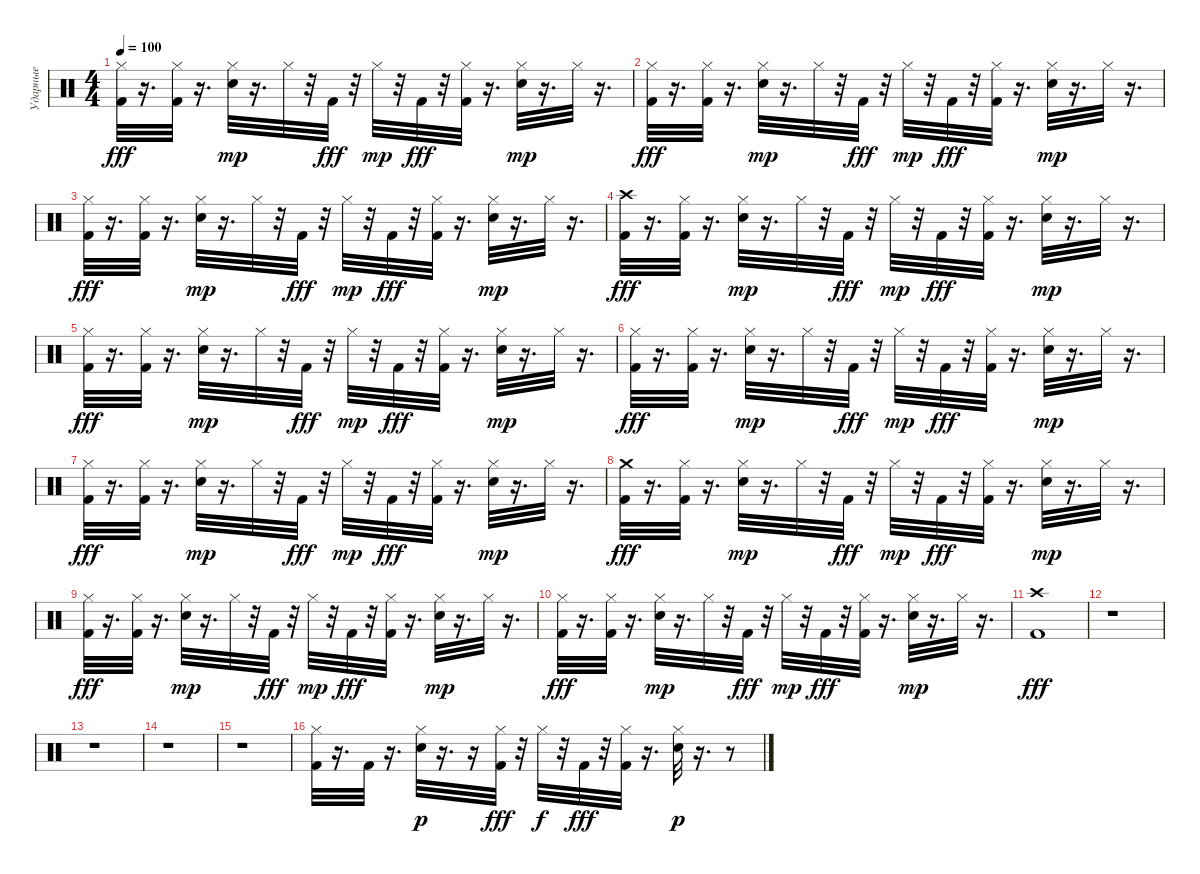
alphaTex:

\track ("Ударные" "Ударные") {instrument percussion}
\staff {score}
\articulation defaults
\ts (4 4)
\tempo 100
\clef neutral
\ks c
("Hi-Hat (closed)" "Kick (hit) 2").32{dy fff} r.16{d} ("Hi-Hat (closed)" "Kick (hit) 2").32 r.16{d} ("Hi-Hat (closed)" "Electric Snare (hit)").32{dy mp} r.16{d} "Hi-Hat (closed)".32 r.32 "Kick (hit) 2".32{dy fff} r.32 "Hi-Hat (closed)".32{dy mp} r.32 "Kick (hit) 2".32{dy fff} r.32 ("Hi-Hat (closed)" "Kick (hit) 2").32 r.16{d} ("Hi-Hat (closed)" "Electric Snare (hit)").32{dy mp} r.16{d} "Hi-Hat (closed)".32 r.16{d} |
("Hi-Hat (closed)" "Kick (hit) 2").32{dy fff} r.16{d} ("Hi-Hat (closed)" "Kick (hit) 2").32 r.16{d} ("Hi-Hat (closed)" "Electric Snare (hit)").32{dy mp} r.16{d} "Hi-Hat (closed)".32 r.32 "Kick (hit) 2".32{dy fff} r.32 "Hi-Hat (closed)".32{dy mp} r.32 "Kick (hit) 2".32{dy fff} r.32 ("Hi-Hat (closed)" "Kick (hit) 2").32 r.16{d} ("Hi-Hat (closed)" "Electric Snare (hit)").32{dy mp} r.16{d} "Hi-Hat (closed)".32 r.16{d} |
("Hi-Hat (closed)" "Kick (hit) 2").32{dy fff} r.16{d} ("Hi-Hat (closed)" "Kick (hit) 2").32 r.16{d} ("Hi-Hat (closed)" "Electric Snare (hit)").32{dy mp} r.16{d} "Hi-Hat (closed)".32 r.32 "Kick (hit) 2".32{dy fff} r.32 "Hi-Hat (closed)".32{dy mp} r.32 "Kick (hit) 2".32{dy fff} r.32 ("Hi-Hat (closed)" "Kick (hit) 2").32 r.16{d} ("Hi-Hat (closed)" "Electric Snare (hit)").32{dy mp} r.16{d} "Hi-Hat (closed)".32 r.16{d} |
("Crash high (hit)" "Kick (hit) 2").32{dy fff} r.16{d} ("Hi-Hat (closed)" "Kick (hit) 2").32 r.16{d} ("Hi-Hat (closed)" "Electric Snare (hit)").32{dy mp} r.16{d} "Hi-Hat (closed)".32 r.32 "Kick (hit) 2".32{dy fff} r.32 "Hi-Hat (closed)".32{dy mp} r.32 "Kick (hit) 2".32{dy fff} r.32 ("Hi-Hat (closed)" "Kick (hit) 2").32 r.16{d} ("Hi-Hat (closed)" "Electric Snare (hit)").32{dy mp} r.16{d} "Hi-Hat (closed)".32 r.16{d} |
("Hi-Hat (closed)" "Kick (hit) 2").32{dy fff} r.16{d} ("Hi-Hat (closed)" "Kick (hit) 2").32 r.16{d} ("Hi-Hat (closed)" "Electric Snare (hit)").32{dy mp} r.16{d} "Hi-Hat (closed)".32 r.32 "Kick (hit) 2".32{dy fff} r.32 "Hi-Hat (closed)".32{dy mp} r.32 "Kick (hit) 2".32{dy fff} r.32 ("Hi-Hat (closed)" "Kick (hit) 2").32 r.16{d} ("Hi-Hat (closed)" "Electric Snare (hit)").32{dy mp} r.16{d} "Hi-Hat (closed)".32 r.16{d} |
("Hi-Hat (closed)" "Kick (hit) 2").32{dy fff} r.16{d} ("Hi-Hat (closed)" "Kick (hit) 2").32 r.16{d} ("Hi-Hat (closed)" "Electric Snare (hit)").32{dy mp} r.16{d} "Hi-Hat (closed)".32 r.32 "Kick (hit) 2".32{dy fff} r.32 "Hi-Hat (closed)".32{dy mp} r.32 "Kick (hit) 2".32{dy fff} r.32 ("Hi-Hat (closed)" "Kick (hit) 2").32 r.16{d} ("Hi-Hat (closed)" "Electric Snare (hit)").32{dy mp} r.16{d} "Hi-Hat (closed)".32 r.16{d} |
("Hi-Hat (closed)" "Kick (hit) 2").32{dy fff} r.16{d} ("Hi-Hat (closed)" "Kick (hit) 2").32 r.16{d} ("Hi-Hat (closed)" "Electric Snare (hit)").32{dy mp} r.16{d} "Hi-Hat (closed)".32 r.32 "Kick (hit) 2".32{dy fff} r.32 "Hi-Hat (closed)".32{dy mp} r.32 "Kick (hit) 2".32{dy fff} r.32 ("Hi-Hat (closed)" "Kick (hit) 2").32 r.16{d} ("Hi-Hat (closed)" "Electric Snare (hit)").32{dy mp} r.16{d} "Hi-Hat (closed)".32 r.16{d} |
("Crash medium (hit)" "Kick (hit) 2").32{dy fff} r.16{d} ("Hi-Hat (closed)" "Kick (hit) 2").32 r.16{d} ("Hi-Hat (closed)" "Electric Snare (hit)").32{dy mp} r.16{d} "Hi-Hat (closed)".32 r.32 "Kick (hit) 2".32{dy fff} r.32 "Hi-Hat (closed)".32{dy mp} r.32 "Kick (hit) 2".32{dy fff} r.32 ("Hi-Hat (closed)" "Kick (hit) 2").32 r.16{d} ("Hi-Hat (closed)" "Electric Snare (hit)").32{dy mp} r.16{d} "Hi-Hat (closed)".32 r.16{d} |
("Hi-Hat (closed)" "Kick (hit) 2").32{dy fff} r.16{d} ("Hi-Hat (closed)" "Kick (hit) 2").32 r.16{d} ("Hi-Hat (closed)" "Electric Snare (hit)").32{dy mp} r.16{d} "Hi-Hat (closed)".32 r.32 "Kick (hit) 2".32{dy fff} r.32 "Hi-Hat (closed)".32{dy mp} r.32 "Kick (hit) 2".32{dy fff} r.32 ("Hi-Hat (closed)" "Kick (hit) 2").32 r.16{d} ("Hi-Hat (closed)" "Electric Snare (hit)").32{dy mp} r.16{d} "Hi-Hat (closed)".32 r.16{d} |
("Hi-Hat (closed)" "Kick (hit) 2").32{dy fff} r.16{d} ("Hi-Hat (closed)" "Kick (hit) 2").32 r.16{d} ("Hi-Hat (closed)" "Electric Snare (hit)").32{dy mp} r.16{d} "Hi-Hat (closed)".32 r.32 "Kick (hit) 2".32{dy fff} r.32 "Hi-Hat (closed)".32{dy mp} r.32 "Kick (hit) 2".32{dy fff} r.32 ("Hi-Hat (closed)" "Kick (hit) 2").32 r.16{d} ("Hi-Hat (closed)" "Electric Snare (hit)").32{dy mp} r.16{d} "Hi-Hat (closed)".32 r.16{d} |
("Crash high (hit)" "Kick (hit) 2").1{dy fff} |
r.1 |
r.1 |
r.1 |
r.1 |
("Hi-Hat (closed)" "Kick (hit) 2").32 r.16{d} "Kick (hit) 2".32 r.16{d} ("Hi-Hat (closed)" "Electric Snare (hit)").32{dy p} r.16{d} r.16 ("Hi-Hat (closed)" "Kick (hit) 2").32{dy fff} r.32 "Hi-Hat (closed)".32{dy f} r.32 "Kick (hit) 2".32{dy fff} r.32 ("Hi-Hat (closed)" "Kick (hit) 2").32 r.16{d} ("Hi-Hat (closed)" "Electric Snare (hit)").32{dy p} r.16{d} r.8
